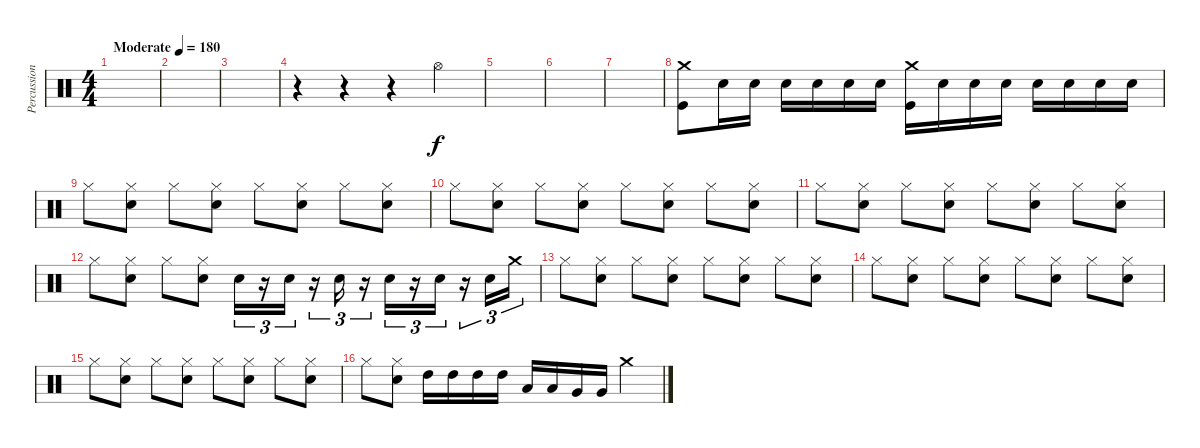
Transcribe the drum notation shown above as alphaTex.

\track ("Percussion" "Percussion") {instrument percussion}
\staff {score}
\articulation defaults
\ts (4 4)
\tempo (180 "Moderate")
\clef neutral
\ks c
|
|
|
r.4 r.4 r.4 "Hi-Hat (open)".4 |
|
|
|
("Crash medium (hit)" "Kick (hit)").8 "Electric Snare (hit)".16 "Electric Snare (hit)".16 "Electric Snare (hit)".16 "Electric Snare (hit)".16 "Electric Snare (hit)".16 "Electric Snare (hit)".16 ("Crash medium (hit)" "Kick (hit)").16 "Electric Snare (hit)".16 "Electric Snare (hit)".16 "Electric Snare (hit)".16 "Electric Snare (hit)".16 "Electric Snare (hit)".16 "Electric Snare (hit)".16 "Electric Snare (hit)".16 |
"Hi-Hat (closed)".8 ("Snare (hit) 2" "Hi-Hat (closed)").8 "Hi-Hat (closed)".8 ("Snare (hit) 2" "Hi-Hat (closed)").8 "Hi-Hat (closed)".8 ("Snare (hit) 2" "Hi-Hat (closed)").8 "Hi-Hat (closed)".8 ("Snare (hit) 2" "Hi-Hat (closed)").8 |
"Hi-Hat (closed)".8 ("Snare (hit) 2" "Hi-Hat (closed)").8 "Hi-Hat (closed)".8 ("Snare (hit) 2" "Hi-Hat (closed)").8 "Hi-Hat (closed)".8 ("Snare (hit) 2" "Hi-Hat (closed)").8 "Hi-Hat (closed)".8 ("Snare (hit) 2" "Hi-Hat (closed)").8 |
"Hi-Hat (closed)".8 ("Snare (hit) 2" "Hi-Hat (closed)").8 "Hi-Hat (closed)".8 ("Snare (hit) 2" "Hi-Hat (closed)").8 "Hi-Hat (closed)".8 ("Snare (hit) 2" "Hi-Hat (closed)").8 "Hi-Hat (closed)".8 ("Snare (hit) 2" "Hi-Hat (closed)").8 |
"Hi-Hat (closed)".8 ("Snare (hit) 2" "Hi-Hat (closed)").8 "Hi-Hat (closed)".8 ("Snare (hit) 2" "Hi-Hat (closed)").8 "Electric Snare (hit)".16{tu (3 2)} r.16{tu (3 2)} "Electric Snare (hit)".16{tu (3 2)} r.16{tu (3 2)} "Electric Snare (hit)".16{tu (3 2)} r.16{tu (3 2)} "Electric Snare (hit)".16{tu (3 2)} r.16{tu (3 2)} "Electric Snare (hit)".16{tu (3 2)} r.16{tu (3 2)} "Electric Snare (hit)".16{tu (3 2)} "Crash medium (hit)".16{tu (3 2)} |
"Hi-Hat (closed)".8 ("Snare (hit) 2" "Hi-Hat (closed)").8 "Hi-Hat (closed)".8 ("Snare (hit) 2" "Hi-Hat (closed)").8 "Hi-Hat (closed)".8 ("Snare (hit) 2" "Hi-Hat (closed)").8 "Hi-Hat (closed)".8 ("Snare (hit) 2" "Hi-Hat (closed)").8 |
"Hi-Hat (closed)".8 ("Snare (hit) 2" "Hi-Hat (closed)").8 "Hi-Hat (closed)".8 ("Snare (hit) 2" "Hi-Hat (closed)").8 "Hi-Hat (closed)".8 ("Snare (hit) 2" "Hi-Hat (closed)").8 "Hi-Hat (closed)".8 ("Snare (hit) 2" "Hi-Hat (closed)").8 |
"Hi-Hat (closed)".8 ("Snare (hit) 2" "Hi-Hat (closed)").8 "Hi-Hat (closed)".8 ("Snare (hit) 2" "Hi-Hat (closed)").8 "Hi-Hat (closed)".8 ("Snare (hit) 2" "Hi-Hat (closed)").8 "Hi-Hat (closed)".8 ("Snare (hit) 2" "Hi-Hat (closed)").8 |
"Hi-Hat (closed)".8 ("Snare (hit) 2" "Hi-Hat (closed)").8 "High Tom (hit)".16 "High Tom (hit)".16 "High Tom (hit)".16 "High Tom (hit)".16 "Low Tom (hit)".16 "Low Tom (hit)".16 "Very Low Tom (hit)".16 "Very Low Tom (hit)".16 "Crash medium (hit)".4
